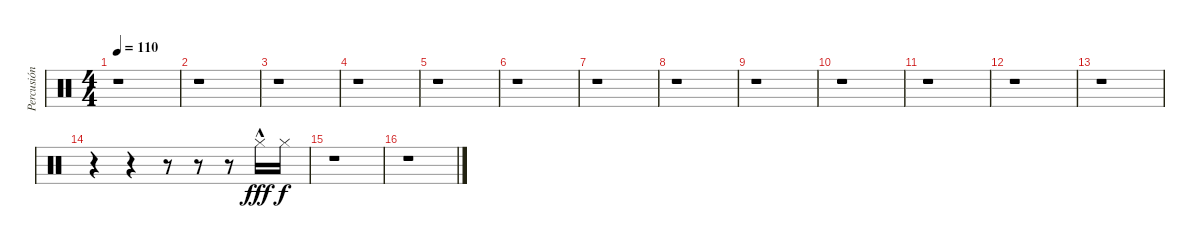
\track ("Percusión" "Percusión") {instrument percussion}
\staff {score}
\articulation defaults
\ts (4 4)
\tempo 110
\clef neutral
\ks c
r.1{dy f} |
r.1 |
r.1 |
r.1 |
r.1 |
r.1 |
r.1 |
r.1 |
r.1 |
r.1 |
r.1 |
r.1 |
r.1 |
r.4 r.4 r.8 r.8 r.8 "Hi-Hat (closed)"{hac}.16{dy fff} "Hi-Hat (closed)".16{dy f} |
r.1 |
r.1
